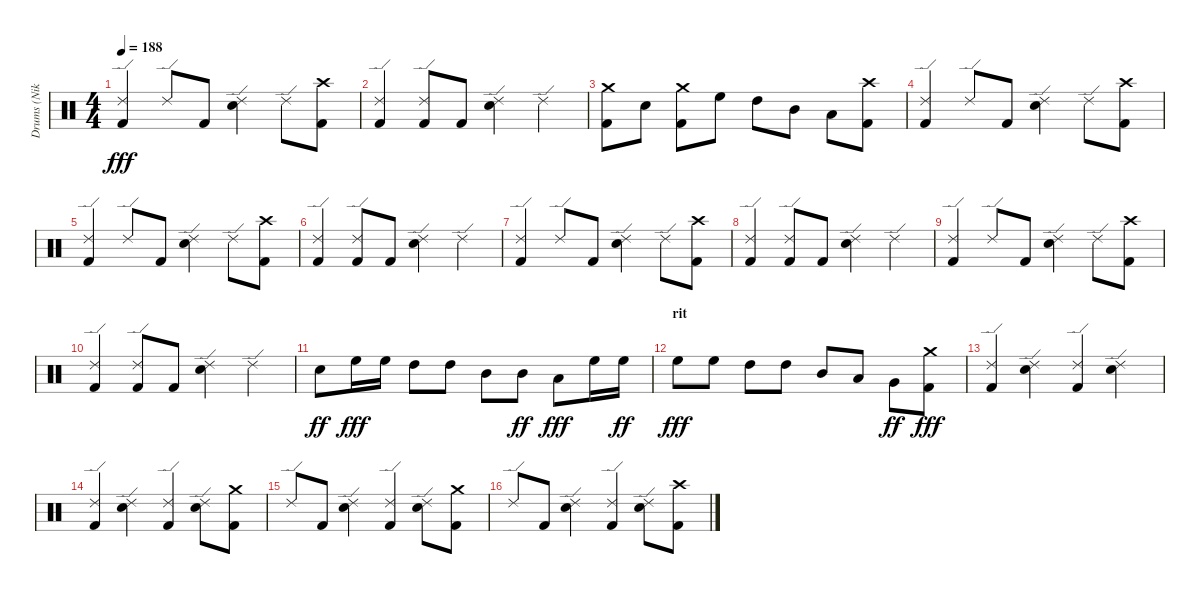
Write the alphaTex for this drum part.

\track ("Drums (Niko)" "Drums (Nik") {instrument percussion}
\staff {score}
\articulation defaults
\ts (4 4)
\tempo 188
\clef neutral
\ks c
("Ride (edge) 2" "Kick (hit) 2").4{dy fff} "Ride (edge) 2".8 "Kick (hit) 2".8 ("Ride (edge) 2" "Electric Snare (hit)").4 "Ride (edge) 2".8 ("Crash high (hit)" "Kick (hit) 2").8 |
("Ride (edge) 2" "Kick (hit) 2").4 ("Ride (edge) 2" "Kick (hit) 2").8 "Kick (hit) 2".8 ("Ride (edge) 2" "Electric Snare (hit)").4 "Ride (edge) 2".4 |
("Crash medium (hit)" "Kick (hit) 2").8 "Electric Snare (hit)".8 ("Crash medium (hit)" "Kick (hit) 2").8 "High Floor Tom (hit)".8 "High Tom (hit)".8 "Mid Tom (hit)".8 "Low Tom (hit)".8 ("Crash high (hit)" "Kick (hit) 2").8 |
("Ride (edge) 2" "Kick (hit) 2").4 "Ride (edge) 2".8 "Kick (hit) 2".8 ("Ride (edge) 2" "Electric Snare (hit)").4 "Ride (edge) 2".8 ("Crash high (hit)" "Kick (hit) 2").8 |
("Ride (edge) 2" "Kick (hit) 2").4 "Ride (edge) 2".8 "Kick (hit) 2".8 ("Ride (edge) 2" "Electric Snare (hit)").4 "Ride (edge) 2".8 ("Crash high (hit)" "Kick (hit) 2").8 |
("Ride (edge) 2" "Kick (hit) 2").4 ("Ride (edge) 2" "Kick (hit) 2").8 "Kick (hit) 2".8 ("Ride (edge) 2" "Electric Snare (hit)").4 "Ride (edge) 2".4 |
("Ride (edge) 2" "Kick (hit) 2").4 "Ride (edge) 2".8 "Kick (hit) 2".8 ("Ride (edge) 2" "Electric Snare (hit)").4 "Ride (edge) 2".8 ("Crash high (hit)" "Kick (hit) 2").8 |
("Ride (edge) 2" "Kick (hit) 2").4 ("Ride (edge) 2" "Kick (hit) 2").8 "Kick (hit) 2".8 ("Ride (edge) 2" "Electric Snare (hit)").4 "Ride (edge) 2".4 |
("Ride (edge) 2" "Kick (hit) 2").4 "Ride (edge) 2".8 "Kick (hit) 2".8 ("Ride (edge) 2" "Electric Snare (hit)").4 "Ride (edge) 2".8 ("Crash high (hit)" "Kick (hit) 2").8 |
("Ride (edge) 2" "Kick (hit) 2").4 ("Ride (edge) 2" "Kick (hit) 2").8 "Kick (hit) 2".8 ("Ride (edge) 2" "Electric Snare (hit)").4 "Ride (edge) 2".4 |
"Electric Snare (hit)".8{dy ff} "High Floor Tom (hit)".16{dy fff} "High Floor Tom (hit)".16 "High Tom (hit)".8 "High Tom (hit)".8 "Mid Tom (hit)".8 "Mid Tom (hit)".8{dy ff} "Low Tom (hit)".8{dy fff} "High Floor Tom (hit)".16 "High Floor Tom (hit)".16{dy ff} |
\section ("" "rit")
"High Floor Tom (hit)".8{dy fff} "High Floor Tom (hit)".8 "High Tom (hit)".8 "High Tom (hit)".8 "Mid Tom (hit)".8 "Low Tom (hit)".8 "Very Low Tom (hit)".8{dy ff} ("Crash medium (hit)" "Kick (hit) 2").8{dy fff} |
("Ride (edge) 2" "Kick (hit) 2").4 ("Ride (edge) 2" "Electric Snare (hit)").4 ("Ride (edge) 2" "Kick (hit) 2").4 ("Ride (edge) 2" "Electric Snare (hit)").4 |
("Ride (edge) 2" "Kick (hit) 2").4 ("Ride (edge) 2" "Electric Snare (hit)").4 ("Ride (edge) 2" "Kick (hit) 2").4 ("Ride (edge) 2" "Electric Snare (hit)").8 ("Crash medium (hit)" "Kick (hit) 2").8 |
"Ride (edge) 2".8 "Kick (hit) 2".8 ("Ride (edge) 2" "Electric Snare (hit)").4 ("Ride (edge) 2" "Kick (hit) 2").4 ("Ride (edge) 2" "Electric Snare (hit)").8 ("Crash medium (hit)" "Kick (hit) 2").8 |
"Ride (edge) 2".8 "Kick (hit) 2".8 ("Ride (edge) 2" "Electric Snare (hit)").4 ("Ride (edge) 2" "Kick (hit) 2").4 ("Ride (edge) 2" "Electric Snare (hit)").8 ("Crash high (hit)" "Kick (hit) 2").8
